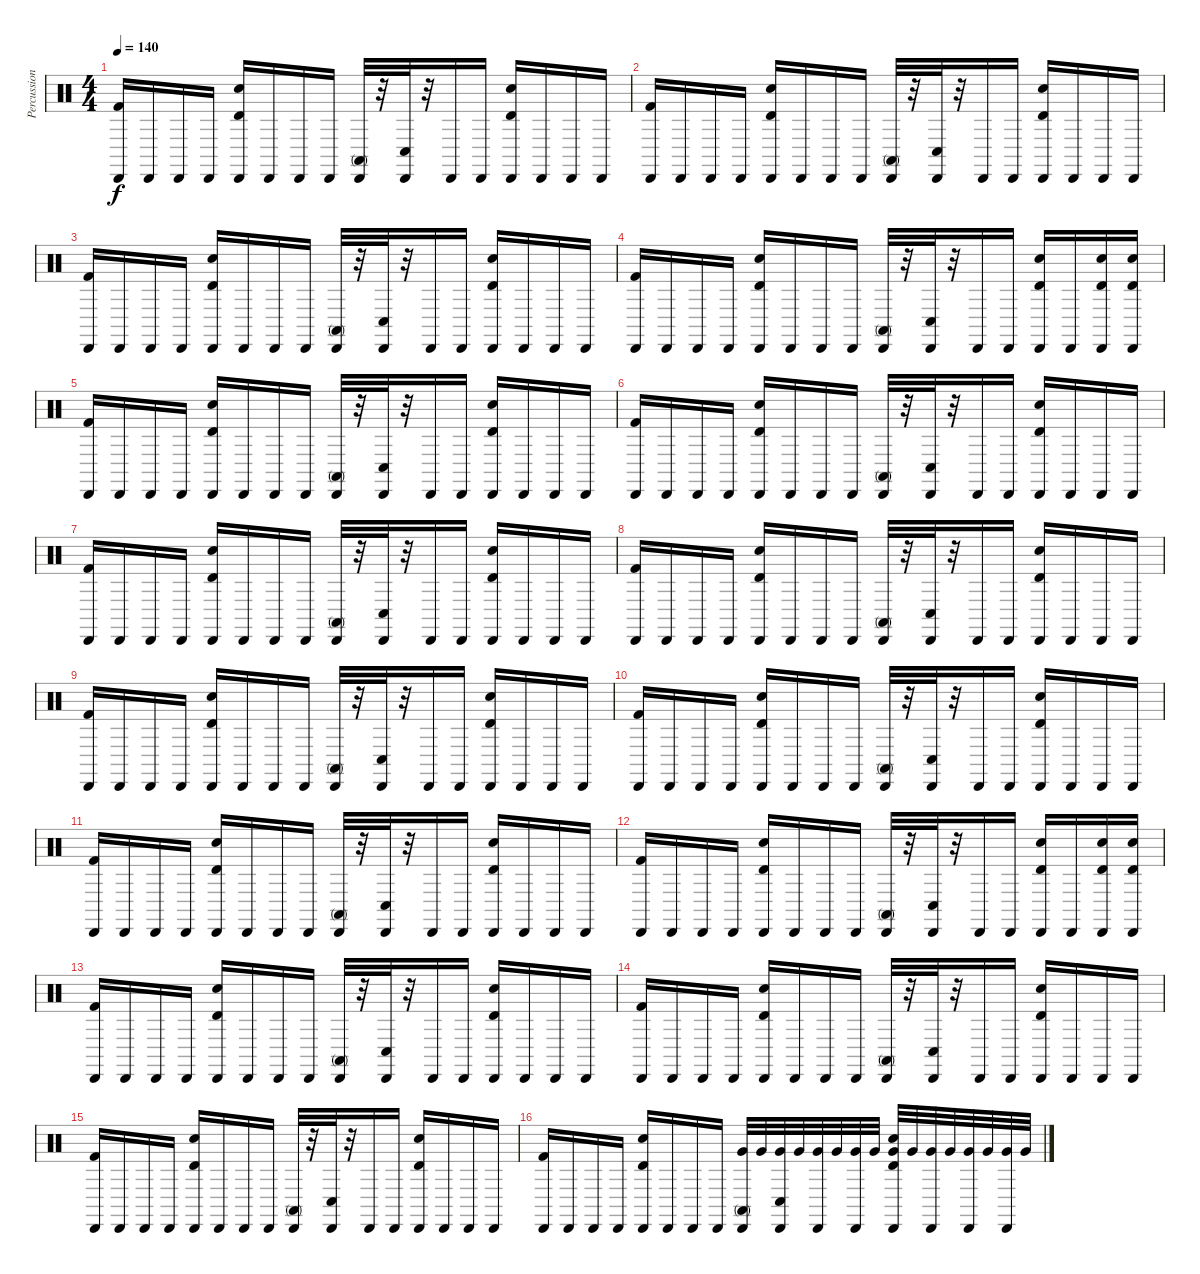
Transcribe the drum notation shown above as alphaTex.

\track ("Percussions" "Percussion") {instrument percussion}
\staff {score}
\articulation defaults
\ts (4 4)
\tempo 140
\clef neutral
\ks c
("Kick (hit) 2" "Cabasa (hit)").16{dy f} "Cabasa (hit)".16 "Cabasa (hit)".16 "Cabasa (hit)".16 ("Timbale high (hit)" "Electric Snare (hit)" "Cabasa (hit)").16 "Cabasa (hit)".16 "Cabasa (hit)".16 "Cabasa (hit)".16 ("Conga high (mute)" "Cabasa (hit)").32 r.32 ("Conga low (hit)" "Cabasa (hit)").32 r.32 "Cabasa (hit)".16 "Cabasa (hit)".16 ("Electric Snare (hit)" "Timbale high (hit)" "Cabasa (hit)").16 "Cabasa (hit)".16 "Cabasa (hit)".16 "Cabasa (hit)".16 |
("Kick (hit) 2" "Cabasa (hit)").16 "Cabasa (hit)".16 "Cabasa (hit)".16 "Cabasa (hit)".16 ("Timbale high (hit)" "Electric Snare (hit)" "Cabasa (hit)").16 "Cabasa (hit)".16 "Cabasa (hit)".16 "Cabasa (hit)".16 ("Conga high (mute)" "Cabasa (hit)").32 r.32 ("Conga low (hit)" "Cabasa (hit)").32 r.32 "Cabasa (hit)".16 "Cabasa (hit)".16 ("Electric Snare (hit)" "Timbale high (hit)" "Cabasa (hit)").16 "Cabasa (hit)".16 "Cabasa (hit)".16 "Cabasa (hit)".16 |
("Kick (hit) 2" "Cabasa (hit)").16 "Cabasa (hit)".16 "Cabasa (hit)".16 "Cabasa (hit)".16 ("Timbale high (hit)" "Electric Snare (hit)" "Cabasa (hit)").16 "Cabasa (hit)".16 "Cabasa (hit)".16 "Cabasa (hit)".16 ("Conga high (mute)" "Cabasa (hit)").32 r.32 ("Conga low (hit)" "Cabasa (hit)").32 r.32 "Cabasa (hit)".16 "Cabasa (hit)".16 ("Electric Snare (hit)" "Timbale high (hit)" "Cabasa (hit)").16 "Cabasa (hit)".16 "Cabasa (hit)".16 "Cabasa (hit)".16 |
("Kick (hit) 2" "Cabasa (hit)").16 "Cabasa (hit)".16 "Cabasa (hit)".16 "Cabasa (hit)".16 ("Timbale high (hit)" "Electric Snare (hit)" "Cabasa (hit)").16 "Cabasa (hit)".16 "Cabasa (hit)".16 "Cabasa (hit)".16 ("Conga high (mute)" "Cabasa (hit)").32 r.32 ("Conga low (hit)" "Cabasa (hit)").32 r.32 "Cabasa (hit)".16 "Cabasa (hit)".16 ("Electric Snare (hit)" "Timbale high (hit)" "Cabasa (hit)").16 "Cabasa (hit)".16 ("Electric Snare (hit)" "Timbale high (hit)" "Cabasa (hit)").16 ("Electric Snare (hit)" "Timbale high (hit)" "Cabasa (hit)").16 |
("Kick (hit) 2" "Cabasa (hit)").16 "Cabasa (hit)".16 "Cabasa (hit)".16 "Cabasa (hit)".16 ("Timbale high (hit)" "Electric Snare (hit)" "Cabasa (hit)").16 "Cabasa (hit)".16 "Cabasa (hit)".16 "Cabasa (hit)".16 ("Conga high (mute)" "Cabasa (hit)").32 r.32 ("Conga low (hit)" "Cabasa (hit)").32 r.32 "Cabasa (hit)".16 "Cabasa (hit)".16 ("Electric Snare (hit)" "Timbale high (hit)" "Cabasa (hit)").16 "Cabasa (hit)".16 "Cabasa (hit)".16 "Cabasa (hit)".16 |
("Kick (hit) 2" "Cabasa (hit)").16 "Cabasa (hit)".16 "Cabasa (hit)".16 "Cabasa (hit)".16 ("Timbale high (hit)" "Electric Snare (hit)" "Cabasa (hit)").16 "Cabasa (hit)".16 "Cabasa (hit)".16 "Cabasa (hit)".16 ("Conga high (mute)" "Cabasa (hit)").32 r.32 ("Conga low (hit)" "Cabasa (hit)").32 r.32 "Cabasa (hit)".16 "Cabasa (hit)".16 ("Electric Snare (hit)" "Timbale high (hit)" "Cabasa (hit)").16 "Cabasa (hit)".16 "Cabasa (hit)".16 "Cabasa (hit)".16 |
("Kick (hit) 2" "Cabasa (hit)").16 "Cabasa (hit)".16 "Cabasa (hit)".16 "Cabasa (hit)".16 ("Timbale high (hit)" "Electric Snare (hit)" "Cabasa (hit)").16 "Cabasa (hit)".16 "Cabasa (hit)".16 "Cabasa (hit)".16 ("Conga high (mute)" "Cabasa (hit)").32 r.32 ("Conga low (hit)" "Cabasa (hit)").32 r.32 "Cabasa (hit)".16 "Cabasa (hit)".16 ("Electric Snare (hit)" "Timbale high (hit)" "Cabasa (hit)").16 "Cabasa (hit)".16 "Cabasa (hit)".16 "Cabasa (hit)".16 |
("Kick (hit) 2" "Cabasa (hit)").16 "Cabasa (hit)".16 "Cabasa (hit)".16 "Cabasa (hit)".16 ("Timbale high (hit)" "Electric Snare (hit)" "Cabasa (hit)").16 "Cabasa (hit)".16 "Cabasa (hit)".16 "Cabasa (hit)".16 ("Conga high (mute)" "Cabasa (hit)").32 r.32 ("Conga low (hit)" "Cabasa (hit)").32 r.32 "Cabasa (hit)".16 "Cabasa (hit)".16 ("Electric Snare (hit)" "Timbale high (hit)" "Cabasa (hit)").16 "Cabasa (hit)".16 "Cabasa (hit)".16 "Cabasa (hit)".16 |
("Kick (hit) 2" "Cabasa (hit)").16 "Cabasa (hit)".16 "Cabasa (hit)".16 "Cabasa (hit)".16 ("Timbale high (hit)" "Electric Snare (hit)" "Cabasa (hit)").16 "Cabasa (hit)".16 "Cabasa (hit)".16 "Cabasa (hit)".16 ("Conga high (mute)" "Cabasa (hit)").32 r.32 ("Conga low (hit)" "Cabasa (hit)").32 r.32 "Cabasa (hit)".16 "Cabasa (hit)".16 ("Electric Snare (hit)" "Timbale high (hit)" "Cabasa (hit)").16 "Cabasa (hit)".16 "Cabasa (hit)".16 "Cabasa (hit)".16 |
("Kick (hit) 2" "Cabasa (hit)").16 "Cabasa (hit)".16 "Cabasa (hit)".16 "Cabasa (hit)".16 ("Timbale high (hit)" "Electric Snare (hit)" "Cabasa (hit)").16 "Cabasa (hit)".16 "Cabasa (hit)".16 "Cabasa (hit)".16 ("Conga high (mute)" "Cabasa (hit)").32 r.32 ("Conga low (hit)" "Cabasa (hit)").32 r.32 "Cabasa (hit)".16 "Cabasa (hit)".16 ("Electric Snare (hit)" "Timbale high (hit)" "Cabasa (hit)").16 "Cabasa (hit)".16 "Cabasa (hit)".16 "Cabasa (hit)".16 |
("Kick (hit) 2" "Cabasa (hit)").16 "Cabasa (hit)".16 "Cabasa (hit)".16 "Cabasa (hit)".16 ("Timbale high (hit)" "Electric Snare (hit)" "Cabasa (hit)").16 "Cabasa (hit)".16 "Cabasa (hit)".16 "Cabasa (hit)".16 ("Conga high (mute)" "Cabasa (hit)").32 r.32 ("Conga low (hit)" "Cabasa (hit)").32 r.32 "Cabasa (hit)".16 "Cabasa (hit)".16 ("Electric Snare (hit)" "Timbale high (hit)" "Cabasa (hit)").16 "Cabasa (hit)".16 "Cabasa (hit)".16 "Cabasa (hit)".16 |
("Kick (hit) 2" "Cabasa (hit)").16 "Cabasa (hit)".16 "Cabasa (hit)".16 "Cabasa (hit)".16 ("Timbale high (hit)" "Electric Snare (hit)" "Cabasa (hit)").16 "Cabasa (hit)".16 "Cabasa (hit)".16 "Cabasa (hit)".16 ("Conga high (mute)" "Cabasa (hit)").32 r.32 ("Conga low (hit)" "Cabasa (hit)").32 r.32 "Cabasa (hit)".16 "Cabasa (hit)".16 ("Electric Snare (hit)" "Timbale high (hit)" "Cabasa (hit)").16 "Cabasa (hit)".16 ("Timbale high (hit)" "Electric Snare (hit)" "Cabasa (hit)").16 ("Timbale high (hit)" "Electric Snare (hit)" "Cabasa (hit)").16 |
("Kick (hit) 2" "Cabasa (hit)").16 "Cabasa (hit)".16 "Cabasa (hit)".16 "Cabasa (hit)".16 ("Timbale high (hit)" "Electric Snare (hit)" "Cabasa (hit)").16 "Cabasa (hit)".16 "Cabasa (hit)".16 "Cabasa (hit)".16 ("Conga high (mute)" "Cabasa (hit)").32 r.32 ("Conga low (hit)" "Cabasa (hit)").32 r.32 "Cabasa (hit)".16 "Cabasa (hit)".16 ("Electric Snare (hit)" "Timbale high (hit)" "Cabasa (hit)").16 "Cabasa (hit)".16 "Cabasa (hit)".16 "Cabasa (hit)".16 |
("Kick (hit) 2" "Cabasa (hit)").16 "Cabasa (hit)".16 "Cabasa (hit)".16 "Cabasa (hit)".16 ("Timbale high (hit)" "Electric Snare (hit)" "Cabasa (hit)").16 "Cabasa (hit)".16 "Cabasa (hit)".16 "Cabasa (hit)".16 ("Conga high (mute)" "Cabasa (hit)").32 r.32 ("Conga low (hit)" "Cabasa (hit)").32 r.32 "Cabasa (hit)".16 "Cabasa (hit)".16 ("Electric Snare (hit)" "Timbale high (hit)" "Cabasa (hit)").16 "Cabasa (hit)".16 "Cabasa (hit)".16 "Cabasa (hit)".16 |
("Kick (hit) 2" "Cabasa (hit)").16 "Cabasa (hit)".16 "Cabasa (hit)".16 "Cabasa (hit)".16 ("Timbale high (hit)" "Electric Snare (hit)" "Cabasa (hit)").16 "Cabasa (hit)".16 "Cabasa (hit)".16 "Cabasa (hit)".16 ("Conga high (mute)" "Cabasa (hit)").32 r.32 ("Conga low (hit)" "Cabasa (hit)").32 r.32 "Cabasa (hit)".16 "Cabasa (hit)".16 ("Electric Snare (hit)" "Timbale high (hit)" "Cabasa (hit)").16 "Cabasa (hit)".16 "Cabasa (hit)".16 "Cabasa (hit)".16 |
("Kick (hit) 2" "Cabasa (hit)").16 "Cabasa (hit)".16 "Cabasa (hit)".16 "Cabasa (hit)".16 ("Timbale high (hit)" "Electric Snare (hit)" "Cabasa (hit)").16 "Cabasa (hit)".16 "Cabasa (hit)".16 "Cabasa (hit)".16 ("Very Low Tom (hit)" "Conga high (mute)" "Cabasa (hit)").32 "Very Low Tom (hit)".32 ("Very Low Tom (hit)" "Conga low (hit)" "Cabasa (hit)").32 "Very Low Tom (hit)".32 ("Very Low Tom (hit)" "Cabasa (hit)").32 "Very Low Tom (hit)".32 ("Very Low Tom (hit)" "Cabasa (hit)").32 "Very Low Tom (hit)".32 ("Very Low Tom (hit)" "Electric Snare (hit)" "Timbale high (hit)" "Cabasa (hit)").32 "Very Low Tom (hit)".32 ("Very Low Tom (hit)" "Cabasa (hit)").32 "Very Low Tom (hit)".32 ("Very Low Tom (hit)" "Cabasa (hit)").32 "Very Low Tom (hit)".32 ("Very Low Tom (hit)" "Cabasa (hit)").32 "Very Low Tom (hit)".32
